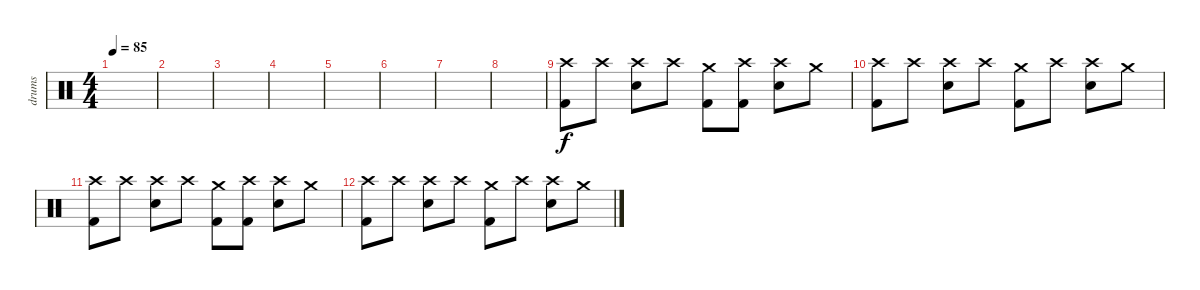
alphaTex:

\track ("drums" "drums") {instrument percussion}
\staff {score}
\articulation defaults
\ts (4 4)
\tempo 85
\clef neutral
\ks c
|
|
|
|
|
|
|
|
("Kick (hit) 2" "Crash high (hit)").8 "Crash high (hit)".8 ("Crash high (hit)" "Electric Snare (hit)").8 "Crash high (hit)".8 ("Kick (hit) 2" "Crash medium (hit)").8 ("Kick (hit) 2" "Crash high (hit)").8 ("Crash high (hit)" "Electric Snare (hit)").8 "Crash medium (hit)".8 |
("Kick (hit) 2" "Crash high (hit)").8 "Crash high (hit)".8 ("Crash high (hit)" "Electric Snare (hit)").8 "Crash high (hit)".8 ("Kick (hit) 2" "Crash medium (hit)").8 "Crash high (hit)".8 ("Crash high (hit)" "Electric Snare (hit)").8 "Crash medium (hit)".8 |
("Kick (hit) 2" "Crash high (hit)").8 "Crash high (hit)".8 ("Crash high (hit)" "Electric Snare (hit)").8 "Crash high (hit)".8 ("Kick (hit) 2" "Crash medium (hit)").8 ("Kick (hit) 2" "Crash high (hit)").8 ("Crash high (hit)" "Electric Snare (hit)").8 "Crash medium (hit)".8 |
("Kick (hit) 2" "Crash high (hit)").8 "Crash high (hit)".8 ("Crash high (hit)" "Electric Snare (hit)").8 "Crash high (hit)".8 ("Kick (hit) 2" "Crash medium (hit)").8 "Crash high (hit)".8 ("Crash high (hit)" "Electric Snare (hit)").8 "Crash medium (hit)".8
